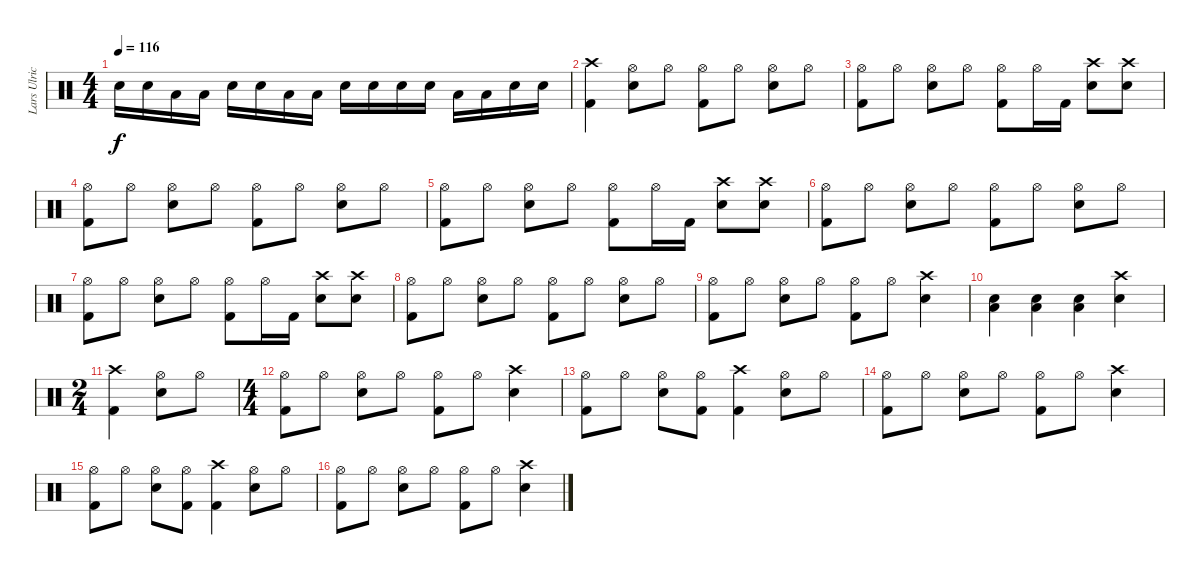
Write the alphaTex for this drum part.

\track ("Lars Ulrich" "Lars Ulric") {instrument percussion}
\staff {score}
\articulation defaults
\ts (4 4)
\tempo 116
\clef neutral
\ks c "Electric Snare (hit)".16{dy f} "Electric Snare (hit)".16 "Low Tom (hit)".16 "Low Tom (hit)".16 "Electric Snare (hit)".16 "Electric Snare (hit)".16 "Low Tom (hit)".16 "Low Tom (hit)".16 "Electric Snare (hit)".16 "Electric Snare (hit)".16 "Electric Snare (hit)".16 "Electric Snare (hit)".16 "Low Tom (hit)".16 "Low Tom (hit)".16 "Electric Snare (hit)".16 "Electric Snare (hit)".16
|
("Crash high (hit)" "Kick (hit) 2").4 ("Hi-Hat (open)" "Electric Snare (hit)").8 "Hi-Hat (open)".8 ("Hi-Hat (open)" "Kick (hit) 2").8 "Hi-Hat (open)".8 ("Hi-Hat (open)" "Electric Snare (hit)").8 "Hi-Hat (open)".8 |
("Hi-Hat (open)" "Kick (hit) 2").8 "Hi-Hat (open)".8 ("Hi-Hat (open)" "Electric Snare (hit)").8 "Hi-Hat (open)".8 ("Hi-Hat (open)" "Kick (hit) 2").8 "Hi-Hat (open)".16 "Kick (hit) 2".16 ("Crash high (hit)" "Electric Snare (hit)").8 ("Crash high (hit)" "Electric Snare (hit)").8 |
("Hi-Hat (open)" "Kick (hit) 2").8 "Hi-Hat (open)".8 ("Hi-Hat (open)" "Electric Snare (hit)").8 "Hi-Hat (open)".8 ("Hi-Hat (open)" "Kick (hit) 2").8 "Hi-Hat (open)".8 ("Hi-Hat (open)" "Electric Snare (hit)").8 "Hi-Hat (open)".8 |
("Hi-Hat (open)" "Kick (hit) 2").8 "Hi-Hat (open)".8 ("Hi-Hat (open)" "Electric Snare (hit)").8 "Hi-Hat (open)".8 ("Hi-Hat (open)" "Kick (hit) 2").8 "Hi-Hat (open)".16 "Kick (hit) 2".16 ("Crash high (hit)" "Electric Snare (hit)").8 ("Crash high (hit)" "Electric Snare (hit)").8 |
("Hi-Hat (open)" "Kick (hit) 2").8 "Hi-Hat (open)".8 ("Hi-Hat (open)" "Electric Snare (hit)").8 "Hi-Hat (open)".8 ("Hi-Hat (open)" "Kick (hit) 2").8 "Hi-Hat (open)".8 ("Hi-Hat (open)" "Electric Snare (hit)").8 "Hi-Hat (open)".8 |
("Hi-Hat (open)" "Kick (hit) 2").8 "Hi-Hat (open)".8 ("Hi-Hat (open)" "Electric Snare (hit)").8 "Hi-Hat (open)".8 ("Hi-Hat (open)" "Kick (hit) 2").8 "Hi-Hat (open)".16 "Kick (hit) 2".16 ("Crash high (hit)" "Electric Snare (hit)").8 ("Crash high (hit)" "Electric Snare (hit)").8 |
("Hi-Hat (open)" "Kick (hit) 2").8 "Hi-Hat (open)".8 ("Hi-Hat (open)" "Electric Snare (hit)").8 "Hi-Hat (open)".8 ("Hi-Hat (open)" "Kick (hit) 2").8 "Hi-Hat (open)".8 ("Hi-Hat (open)" "Electric Snare (hit)").8 "Hi-Hat (open)".8 |
("Hi-Hat (open)" "Kick (hit) 2").8 "Hi-Hat (open)".8 ("Hi-Hat (open)" "Electric Snare (hit)").8 "Hi-Hat (open)".8 ("Hi-Hat (open)" "Kick (hit) 2").8 "Hi-Hat (open)".8 ("Crash high (hit)" "Electric Snare (hit)").4 |
("Electric Snare (hit)" "Low Floor Tom (hit)").4 ("Electric Snare (hit)" "Low Floor Tom (hit)").4 ("Electric Snare (hit)" "Low Floor Tom (hit)").4 ("Crash high (hit)" "Electric Snare (hit)").4 |
\ts (2 4)
("Crash high (hit)" "Kick (hit) 2").4 ("Hi-Hat (open)" "Electric Snare (hit)").8 "Hi-Hat (open)".8 |
\ts (4 4)
("Hi-Hat (open)" "Kick (hit) 2").8 "Hi-Hat (open)".8 ("Hi-Hat (open)" "Electric Snare (hit)").8 "Hi-Hat (open)".8 ("Hi-Hat (open)" "Kick (hit) 2").8 "Hi-Hat (open)".8 ("Crash high (hit)" "Electric Snare (hit)").4 |
("Hi-Hat (open)" "Kick (hit) 2").8 "Hi-Hat (open)".8 ("Hi-Hat (open)" "Electric Snare (hit)").8 ("Hi-Hat (open)" "Kick (hit) 2").8 ("Crash high (hit)" "Kick (hit) 2").4 ("Hi-Hat (open)" "Electric Snare (hit)").8 "Hi-Hat (open)".8 |
("Hi-Hat (open)" "Kick (hit) 2").8 "Hi-Hat (open)".8 ("Hi-Hat (open)" "Electric Snare (hit)").8 "Hi-Hat (open)".8 ("Hi-Hat (open)" "Kick (hit) 2").8 "Hi-Hat (open)".8 ("Crash high (hit)" "Electric Snare (hit)").4 |
("Hi-Hat (open)" "Kick (hit) 2").8 "Hi-Hat (open)".8 ("Hi-Hat (open)" "Electric Snare (hit)").8 ("Hi-Hat (open)" "Kick (hit) 2").8 ("Crash high (hit)" "Kick (hit) 2").4 ("Hi-Hat (open)" "Electric Snare (hit)").8 "Hi-Hat (open)".8 |
("Hi-Hat (open)" "Kick (hit) 2").8 "Hi-Hat (open)".8 ("Hi-Hat (open)" "Electric Snare (hit)").8 "Hi-Hat (open)".8 ("Hi-Hat (open)" "Kick (hit) 2").8 "Hi-Hat (open)".8 ("Crash high (hit)" "Electric Snare (hit)").4
